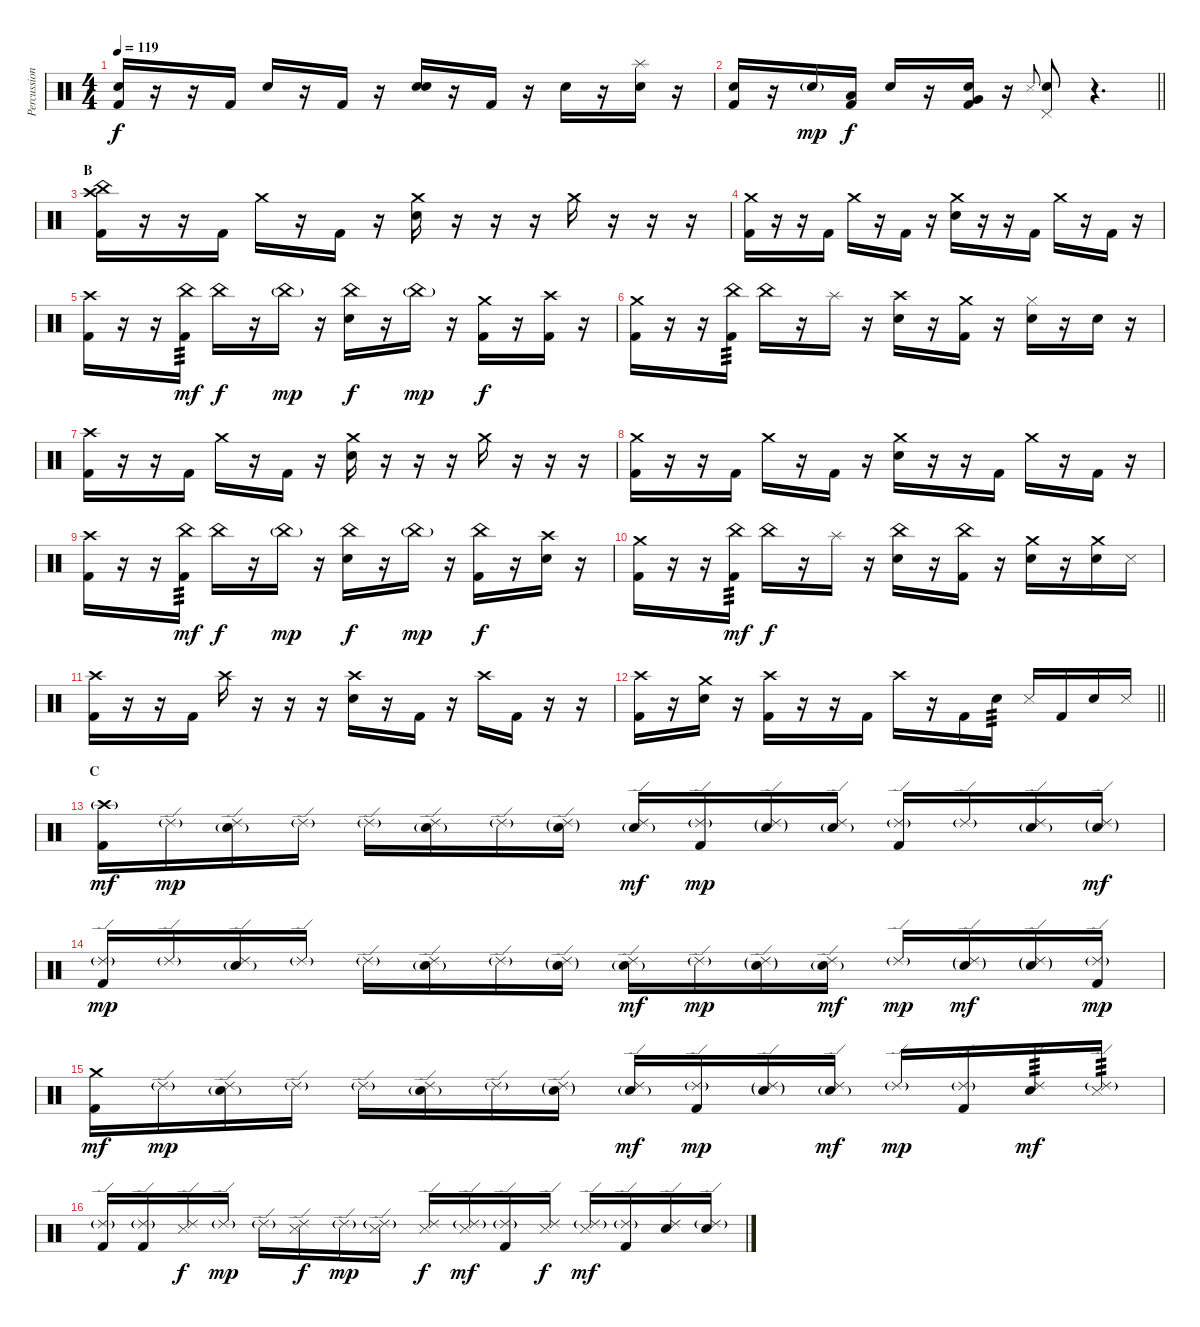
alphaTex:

\track ("Percussion" "Percussion") {instrument percussion}
\staff {score}
\articulation defaults
\ts (4 4)
\tempo 119
\clef neutral
\ks c
("Snare (hit)" "Kick (hit) 2").16{dy f} r.16 r.16 "Kick (hit) 2".16 "Snare (hit)".16 r.16 "Kick (hit) 2".16 r.16 ("Snare (hit)" "Snare (hit) 2").16 r.16 "Kick (hit) 2".16 r.16 "Snare (hit)".16 r.16 ("Splash (hit)" "Snare (hit) 2").16 r.16 |
\barLineRight lightlight
("Snare (hit)" "Kick (hit) 2").16 r.16 "Snare (hit)"{g}.16{dy mp} ("Low Tom (hit)" "Kick (hit) 2").16{dy f} "Snare (hit)".16 r.16 ("Snare (hit)" "Very Low Tom (hit)" "Kick (hit) 2").16 r.16 "Metronome (hit)".8{gr onbeat} ("Pedal Hi-Hat (hit)" "Snare (hit) 2").8 r.4{d} |
\section ("" "B")
("Crash high (hit)" "China (hit)" "Kick (hit) 2").16 r.16 r.16 "Kick (hit) 2".16 "Crash medium (hit)".16 r.16 "Kick (hit) 2".16 r.16 ("Crash medium (hit)" "Snare (hit) 2").16 r.16 r.16 r.16 "Crash medium (hit)".16 r.16 r.16 r.16 |
("Crash medium (hit)" "Kick (hit) 2").16 r.16 r.16 "Kick (hit) 2".16 "Crash medium (hit)".16 r.16 "Kick (hit) 2".16 r.16 ("Crash medium (hit)" "Snare (hit) 2").16 r.16 r.16 "Kick (hit) 2".16 "Crash medium (hit)".16 r.16 "Kick (hit) 2".16 r.16 |
("Crash high (hit)" "Kick (hit) 2").16 r.16 r.16 ("China (hit)" "Kick (hit) 2").16{tp 3 dy mf} "China (hit)".16{dy f} r.16 "China (hit)"{g}.16{dy mp} r.16 ("China (hit)" "Snare (hit) 2").16{dy f} r.16 "China (hit)"{g}.16{dy mp} r.16 ("Crash medium (hit)" "Kick (hit) 2").16{dy f} r.16 ("Crash high (hit)" "Kick (hit) 2").16 r.16 |
("Crash medium (hit)" "Kick (hit) 2").16 r.16 r.16 ("China (hit)" "Kick (hit) 2").16{tp 3} "China (hit)".16 r.16 "Splash (hit)".16 r.16 ("Crash high (hit)" "Snare (hit) 2").16 r.16 ("Crash medium (hit)" "Kick (hit) 2").16 r.16 ("Hi-Hat (closed)" "Snare (hit) 2").16 r.16 "Snare (hit) 2".16 r.16 |
("Crash high (hit)" "Kick (hit) 2").16 r.16 r.16 "Kick (hit) 2".16 "Crash medium (hit)".16 r.16 "Kick (hit) 2".16 r.16 ("Crash medium (hit)" "Snare (hit) 2").16 r.16 r.16 r.16 "Crash medium (hit)".16 r.16 r.16 r.16 |
("Crash medium (hit)" "Kick (hit) 2").16 r.16 r.16 "Kick (hit) 2".16 "Crash medium (hit)".16 r.16 "Kick (hit) 2".16 r.16 ("Crash medium (hit)" "Snare (hit) 2").16 r.16 r.16 "Kick (hit) 2".16 "Crash medium (hit)".16 r.16 "Kick (hit) 2".16 r.16 |
("Crash high (hit)" "Kick (hit) 2").16 r.16 r.16 ("China (hit)" "Kick (hit) 2").16{tp 3 dy mf} "China (hit)".16{dy f} r.16 "China (hit)"{g}.16{dy mp} r.16 ("China (hit)" "Snare (hit) 2").16{dy f} r.16 "China (hit)"{g}.16{dy mp} r.16 ("China (hit)" "Kick (hit) 2").16{dy f} r.16 ("Crash high (hit)" "Snare (hit) 2").16 r.16 |
("Crash medium (hit)" "Kick (hit) 2").16 r.16 r.16 ("China (hit)" "Kick (hit) 2").16{tp 3 dy mf} "China (hit)".16{dy f} r.16 "Splash (hit)".16 r.16 ("China (hit)" "Snare (hit) 2").16 r.16 ("China (hit)" "Kick (hit) 2").16 r.16 ("Crash medium (hit)" "Snare (hit) 2").16 r.16 ("Crash medium (hit)" "Snare (hit) 2").16 "Metronome (hit)".16 |
("Crash high (hit)" "Kick (hit) 2").16 r.16 r.16 "Kick (hit) 2".16 "Crash high (hit)".16 r.16 r.16 r.16 ("Crash high (hit)" "Snare (hit) 2").16 r.16 "Kick (hit) 2".16 r.16 "Crash high (hit)".16 "Kick (hit) 2".16 r.16 r.16 |
\barLineRight lightlight
("Crash high (hit)" "Kick (hit) 2").16 r.16 ("Crash medium (hit)" "Snare (hit) 2").16 r.16 ("Crash high (hit)" "Kick (hit) 2").16 r.16 r.16 "Kick (hit) 2".16 "Crash high (hit)".16 r.16 "Kick (hit) 2".16 "Snare (hit) 2".16{tp 3} "Metronome (hit)".16 "Kick (hit) 2".16 "Snare (hit) 2".16 "Metronome (hit)".16 |
\section ("" "C")
("Crash high (hit)"{g} "Kick (hit) 2").16{dy mf} "Ride (edge) 2"{g}.16{dy mp} ("Ride (edge) 2" "Snare (hit) 2"{g}).16 "Ride (edge) 2"{g}.16 "Ride (edge) 2"{g}.16 ("Ride (edge) 2" "Snare (hit) 2"{g}).16 "Ride (edge) 2"{g}.16 ("Ride (edge) 2"{g} "Snare (hit) 2"{g}).16 ("Ride (edge) 2" "Snare (hit) 2"{g}).16{dy mf} ("Ride (edge) 2"{g} "Kick (hit) 2").16{dy mp} ("Ride (edge) 2"{g} "Snare (hit) 2"{g}).16 ("Ride (edge) 2" "Snare (hit) 2"{g}).16 ("Ride (edge) 2"{g} "Kick (hit) 2").16 "Ride (edge) 2"{g}.16 ("Ride (edge) 2" "Snare (hit) 2"{g}).16 ("Ride (edge) 2"{g} "Snare (hit) 2"{g}).16{dy mf} |
("Ride (edge) 2"{g} "Kick (hit) 2").16{dy mp} "Ride (edge) 2"{g}.16 ("Ride (edge) 2" "Snare (hit) 2"{g}).16 "Ride (edge) 2"{g}.16 "Ride (edge) 2"{g}.16 ("Ride (edge) 2" "Snare (hit) 2"{g}).16 "Ride (edge) 2"{g}.16 ("Ride (edge) 2"{g} "Snare (hit) 2"{g}).16 ("Ride (edge) 2" "Snare (hit) 2"{g}).16{dy mf} "Ride (edge) 2"{g}.16{dy mp} ("Ride (edge) 2"{g} "Snare (hit) 2"{g}).16 ("Ride (edge) 2" "Electric Snare (hit)"{g}).16{dy mf} "Ride (edge) 2"{g}.16{dy mp} ("Ride (edge) 2"{g} "Snare (hit) 2"{g}).16{dy mf} ("Ride (edge) 2"{g} "Snare (hit) 2"{g}).16 ("Ride (edge) 2"{g} "Kick (hit) 2").16{dy mp} |
("Crash medium (hit)" "Kick (hit) 2").16{dy mf} "Ride (edge) 2"{g}.16{dy mp} ("Ride (edge) 2" "Snare (hit) 2"{g}).16 "Ride (edge) 2"{g}.16 "Ride (edge) 2"{g}.16 ("Ride (edge) 2" "Snare (hit) 2"{g}).16 "Ride (edge) 2"{g}.16 ("Ride (edge) 2"{g} "Snare (hit) 2"{g}).16 ("Ride (edge) 2" "Snare (hit) 2"{g}).16{dy mf} ("Ride (edge) 2"{g} "Kick (hit) 2").16{dy mp} ("Ride (edge) 2"{g} "Snare (hit) 2"{g}).16 ("Ride (edge) 2" "Snare (hit) 2"{g}).16{dy mf} "Ride (edge) 2"{g}.16{dy mp} ("Ride (edge) 2"{g} "Kick (hit) 2").16 ("Ride (edge) 2" "Snare (hit) 2").16{tp 3 dy mf} ("Ride (edge) 2"{g} "Metronome (hit)").16{tp 3} |
("Ride (edge) 2"{g} "Kick (hit) 2").16 ("Ride (edge) 2"{g} "Kick (hit) 2").16 ("Ride (edge) 2" "Snare (side stick) 3").16{dy f} "Ride (edge) 2"{g}.16{dy mp} "Ride (edge) 2"{g}.16 ("Ride (edge) 2" "Snare (side stick) 3").16{dy f} "Ride (edge) 2"{g}.16{dy mp} ("Ride (edge) 2"{g} "Snare (side stick) 3").16 ("Ride (edge) 2" "Snare (side stick) 3").16{dy f} ("Ride (edge) 2"{g} "Snare (side stick) 3").16{dy mf} ("Ride (edge) 2"{g} "Kick (hit) 2").16 ("Ride (edge) 2" "Snare (side stick) 3").16{dy f} ("Ride (edge) 2"{g} "Snare (side stick) 3").16{dy mf} ("Ride (edge) 2"{g} "Kick (hit) 2").16 ("Ride (edge) 2" "Snare (hit) 2").16 ("Ride (edge) 2"{g} "Snare (hit) 2").16
